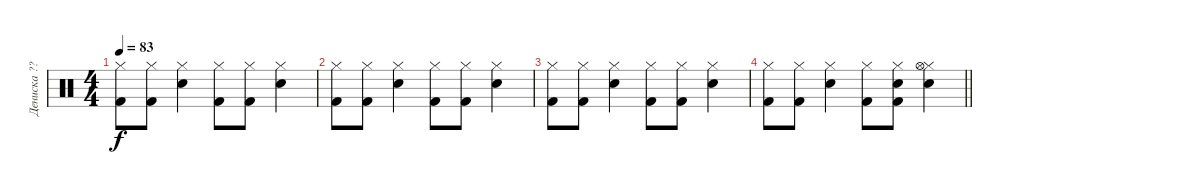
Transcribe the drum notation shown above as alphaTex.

\track ("Дениска ??" "Дениска ??") {instrument percussion}
\staff {score}
\articulation defaults
\ts (4 4)
\tempo 83
\clef neutral
\ks c
("Hi-Hat (closed)" "Kick (hit) 2").8{dy f} ("Hi-Hat (closed)" "Kick (hit) 2").8 ("Hi-Hat (closed)" "Electric Snare (hit)").4 ("Hi-Hat (closed)" "Kick (hit) 2").8 ("Hi-Hat (closed)" "Kick (hit) 2").8 ("Hi-Hat (closed)" "Electric Snare (hit)").4 |
("Hi-Hat (closed)" "Kick (hit) 2").8 ("Hi-Hat (closed)" "Kick (hit) 2").8 ("Hi-Hat (closed)" "Electric Snare (hit)").4 ("Hi-Hat (closed)" "Kick (hit) 2").8 ("Hi-Hat (closed)" "Kick (hit) 2").8 ("Hi-Hat (closed)" "Electric Snare (hit)").4 |
("Hi-Hat (closed)" "Kick (hit) 2").8 ("Hi-Hat (closed)" "Kick (hit) 2").8 ("Hi-Hat (closed)" "Electric Snare (hit)").4 ("Hi-Hat (closed)" "Kick (hit) 2").8 ("Hi-Hat (closed)" "Kick (hit) 2").8 ("Hi-Hat (closed)" "Electric Snare (hit)").4 |
\barLineRight lightlight
("Hi-Hat (closed)" "Kick (hit) 2").8 ("Hi-Hat (closed)" "Kick (hit) 2").8 ("Hi-Hat (closed)" "Electric Snare (hit)").4 ("Hi-Hat (closed)" "Kick (hit) 2").8 ("Hi-Hat (closed)" "Kick (hit) 2" "Electric Snare (hit)").8 ("Hi-Hat (closed)" "Hi-Hat (open)" "Snare (hit) 2").4
